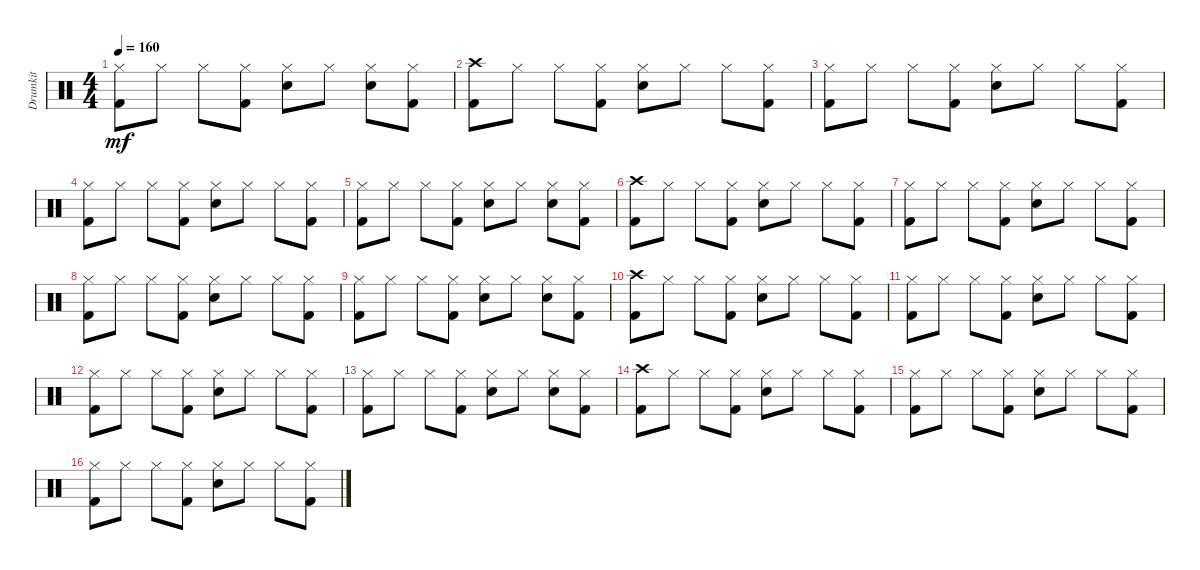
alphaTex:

\track ("Drumkit" "Drumkit") {instrument percussion}
\staff {score}
\articulation defaults
\ts (4 4)
\tempo 160
\clef neutral
\ks c
("Hi-Hat (closed)" "Kick (hit) 2").8{dy mf} "Hi-Hat (closed)".8 "Hi-Hat (closed)".8 ("Hi-Hat (closed)" "Kick (hit) 2").8 ("Hi-Hat (closed)" "Snare (hit) 2").8 "Hi-Hat (closed)".8 ("Hi-Hat (closed)" "Snare (hit) 2").8 ("Hi-Hat (closed)" "Kick (hit) 2").8 |
("Crash high (hit)" "Kick (hit) 2").8 "Hi-Hat (closed)".8 "Hi-Hat (closed)".8 ("Hi-Hat (closed)" "Kick (hit) 2").8 ("Hi-Hat (closed)" "Snare (hit) 2").8 "Hi-Hat (closed)".8 "Hi-Hat (closed)".8 ("Hi-Hat (closed)" "Kick (hit) 2").8 |
("Hi-Hat (closed)" "Kick (hit) 2").8 "Hi-Hat (closed)".8 "Hi-Hat (closed)".8 ("Hi-Hat (closed)" "Kick (hit) 2").8 ("Hi-Hat (closed)" "Snare (hit) 2").8 "Hi-Hat (closed)".8 "Hi-Hat (closed)".8 ("Hi-Hat (closed)" "Kick (hit) 2").8 |
("Hi-Hat (closed)" "Kick (hit) 2").8 "Hi-Hat (closed)".8 "Hi-Hat (closed)".8 ("Hi-Hat (closed)" "Kick (hit) 2").8 ("Hi-Hat (closed)" "Snare (hit) 2").8 "Hi-Hat (closed)".8 "Hi-Hat (closed)".8 ("Hi-Hat (closed)" "Kick (hit) 2").8 |
("Hi-Hat (closed)" "Kick (hit) 2").8 "Hi-Hat (closed)".8 "Hi-Hat (closed)".8 ("Hi-Hat (closed)" "Kick (hit) 2").8 ("Hi-Hat (closed)" "Snare (hit) 2").8 "Hi-Hat (closed)".8 ("Hi-Hat (closed)" "Snare (hit) 2").8 ("Hi-Hat (closed)" "Kick (hit) 2").8 |
("Crash high (hit)" "Kick (hit) 2").8 "Hi-Hat (closed)".8 "Hi-Hat (closed)".8 ("Hi-Hat (closed)" "Kick (hit) 2").8 ("Hi-Hat (closed)" "Snare (hit) 2").8 "Hi-Hat (closed)".8 "Hi-Hat (closed)".8 ("Hi-Hat (closed)" "Kick (hit) 2").8 |
("Hi-Hat (closed)" "Kick (hit) 2").8 "Hi-Hat (closed)".8 "Hi-Hat (closed)".8 ("Hi-Hat (closed)" "Kick (hit) 2").8 ("Hi-Hat (closed)" "Snare (hit) 2").8 "Hi-Hat (closed)".8 "Hi-Hat (closed)".8 ("Hi-Hat (closed)" "Kick (hit) 2").8 |
("Hi-Hat (closed)" "Kick (hit) 2").8 "Hi-Hat (closed)".8 "Hi-Hat (closed)".8 ("Hi-Hat (closed)" "Kick (hit) 2").8 ("Hi-Hat (closed)" "Snare (hit) 2").8 "Hi-Hat (closed)".8 "Hi-Hat (closed)".8 ("Hi-Hat (closed)" "Kick (hit) 2").8 |
("Hi-Hat (closed)" "Kick (hit) 2").8 "Hi-Hat (closed)".8 "Hi-Hat (closed)".8 ("Hi-Hat (closed)" "Kick (hit) 2").8 ("Hi-Hat (closed)" "Snare (hit) 2").8 "Hi-Hat (closed)".8 ("Hi-Hat (closed)" "Snare (hit) 2").8 ("Hi-Hat (closed)" "Kick (hit) 2").8 |
("Crash high (hit)" "Kick (hit) 2").8 "Hi-Hat (closed)".8 "Hi-Hat (closed)".8 ("Hi-Hat (closed)" "Kick (hit) 2").8 ("Hi-Hat (closed)" "Snare (hit) 2").8 "Hi-Hat (closed)".8 "Hi-Hat (closed)".8 ("Hi-Hat (closed)" "Kick (hit) 2").8 |
("Hi-Hat (closed)" "Kick (hit) 2").8 "Hi-Hat (closed)".8 "Hi-Hat (closed)".8 ("Hi-Hat (closed)" "Kick (hit) 2").8 ("Hi-Hat (closed)" "Snare (hit) 2").8 "Hi-Hat (closed)".8 "Hi-Hat (closed)".8 ("Hi-Hat (closed)" "Kick (hit) 2").8 |
("Hi-Hat (closed)" "Kick (hit) 2").8 "Hi-Hat (closed)".8 "Hi-Hat (closed)".8 ("Hi-Hat (closed)" "Kick (hit) 2").8 ("Hi-Hat (closed)" "Snare (hit) 2").8 "Hi-Hat (closed)".8 "Hi-Hat (closed)".8 ("Hi-Hat (closed)" "Kick (hit) 2").8 |
("Hi-Hat (closed)" "Kick (hit) 2").8 "Hi-Hat (closed)".8 "Hi-Hat (closed)".8 ("Hi-Hat (closed)" "Kick (hit) 2").8 ("Hi-Hat (closed)" "Snare (hit) 2").8 "Hi-Hat (closed)".8 ("Hi-Hat (closed)" "Snare (hit) 2").8 ("Hi-Hat (closed)" "Kick (hit) 2").8 |
("Crash high (hit)" "Kick (hit) 2").8 "Hi-Hat (closed)".8 "Hi-Hat (closed)".8 ("Hi-Hat (closed)" "Kick (hit) 2").8 ("Hi-Hat (closed)" "Snare (hit) 2").8 "Hi-Hat (closed)".8 "Hi-Hat (closed)".8 ("Hi-Hat (closed)" "Kick (hit) 2").8 |
("Hi-Hat (closed)" "Kick (hit) 2").8 "Hi-Hat (closed)".8 "Hi-Hat (closed)".8 ("Hi-Hat (closed)" "Kick (hit) 2").8 ("Hi-Hat (closed)" "Snare (hit) 2").8 "Hi-Hat (closed)".8 "Hi-Hat (closed)".8 ("Hi-Hat (closed)" "Kick (hit) 2").8 |
("Hi-Hat (closed)" "Kick (hit) 2").8 "Hi-Hat (closed)".8 "Hi-Hat (closed)".8 ("Hi-Hat (closed)" "Kick (hit) 2").8 ("Hi-Hat (closed)" "Snare (hit) 2").8 "Hi-Hat (closed)".8 "Hi-Hat (closed)".8 ("Hi-Hat (closed)" "Kick (hit) 2").8
